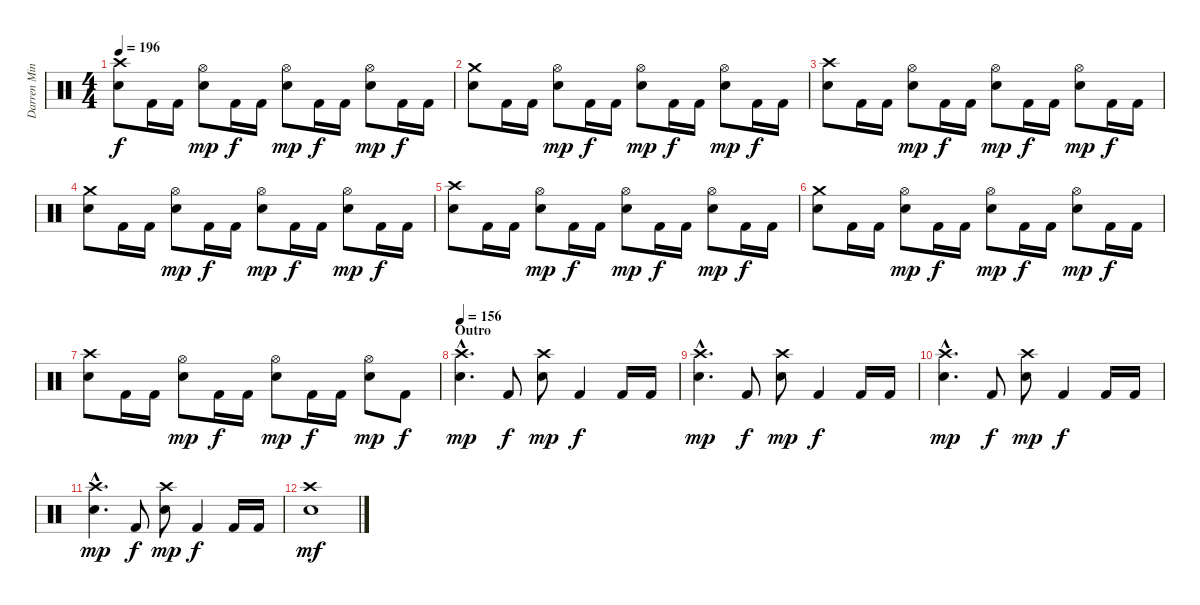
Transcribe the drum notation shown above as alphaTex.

\track ("Darren Minter" "Darren Min") {instrument percussion}
\staff {score}
\articulation defaults
\ts (4 4)
\tempo 196
\clef neutral
\ks c
("Crash high (hit)" "Snare (hit) 2").8{dy f} "Kick (hit) 2".16 "Kick (hit) 2".16 ("Hi-Hat (open)" "Snare (hit) 2").8{dy mp} "Kick (hit) 2".16{dy f} "Kick (hit) 2".16 ("Hi-Hat (open)" "Snare (hit) 2").8{dy mp} "Kick (hit) 2".16{dy f} "Kick (hit) 2".16 ("Hi-Hat (open)" "Snare (hit) 2").8{dy mp} "Kick (hit) 2".16{dy f} "Kick (hit) 2".16 |
("Crash medium (hit)" "Snare (hit) 2").8 "Kick (hit) 2".16 "Kick (hit) 2".16 ("Hi-Hat (open)" "Snare (hit) 2").8{dy mp} "Kick (hit) 2".16{dy f} "Kick (hit) 2".16 ("Hi-Hat (open)" "Snare (hit) 2").8{dy mp} "Kick (hit) 2".16{dy f} "Kick (hit) 2".16 ("Hi-Hat (open)" "Snare (hit) 2").8{dy mp} "Kick (hit) 2".16{dy f} "Kick (hit) 2".16 |
("Crash high (hit)" "Snare (hit) 2").8 "Kick (hit) 2".16 "Kick (hit) 2".16 ("Hi-Hat (open)" "Snare (hit) 2").8{dy mp} "Kick (hit) 2".16{dy f} "Kick (hit) 2".16 ("Hi-Hat (open)" "Snare (hit) 2").8{dy mp} "Kick (hit) 2".16{dy f} "Kick (hit) 2".16 ("Hi-Hat (open)" "Snare (hit) 2").8{dy mp} "Kick (hit) 2".16{dy f} "Kick (hit) 2".16 |
("Crash medium (hit)" "Snare (hit) 2").8 "Kick (hit) 2".16 "Kick (hit) 2".16 ("Hi-Hat (open)" "Snare (hit) 2").8{dy mp} "Kick (hit) 2".16{dy f} "Kick (hit) 2".16 ("Hi-Hat (open)" "Snare (hit) 2").8{dy mp} "Kick (hit) 2".16{dy f} "Kick (hit) 2".16 ("Hi-Hat (open)" "Snare (hit) 2").8{dy mp} "Kick (hit) 2".16{dy f} "Kick (hit) 2".16 |
("Crash high (hit)" "Snare (hit) 2").8 "Kick (hit) 2".16 "Kick (hit) 2".16 ("Hi-Hat (open)" "Snare (hit) 2").8{dy mp} "Kick (hit) 2".16{dy f} "Kick (hit) 2".16 ("Hi-Hat (open)" "Snare (hit) 2").8{dy mp} "Kick (hit) 2".16{dy f} "Kick (hit) 2".16 ("Hi-Hat (open)" "Snare (hit) 2").8{dy mp} "Kick (hit) 2".16{dy f} "Kick (hit) 2".16 |
("Crash medium (hit)" "Snare (hit) 2").8 "Kick (hit) 2".16 "Kick (hit) 2".16 ("Hi-Hat (open)" "Snare (hit) 2").8{dy mp} "Kick (hit) 2".16{dy f} "Kick (hit) 2".16 ("Hi-Hat (open)" "Snare (hit) 2").8{dy mp} "Kick (hit) 2".16{dy f} "Kick (hit) 2".16 ("Hi-Hat (open)" "Snare (hit) 2").8{dy mp} "Kick (hit) 2".16{dy f} "Kick (hit) 2".16 |
("Crash high (hit)" "Snare (hit) 2").8 "Kick (hit) 2".16 "Kick (hit) 2".16 ("Hi-Hat (open)" "Snare (hit) 2").8{dy mp} "Kick (hit) 2".16{dy f} "Kick (hit) 2".16 ("Hi-Hat (open)" "Snare (hit) 2").8{dy mp} "Kick (hit) 2".16{dy f} "Kick (hit) 2".16 ("Hi-Hat (open)" "Snare (hit) 2").8{dy mp} "Kick (hit) 2".8{dy f} |
\section ("" "Outro")
\tempo 156
("Crash high (hit)"{hac} "Snare (hit) 2"{hac}).4{d dy mp} "Kick (hit) 2".8{dy f} ("Crash high (hit)" "Snare (hit) 2").8{dy mp} "Kick (hit) 2".4{dy f} "Kick (hit) 2".16 "Kick (hit) 2".16 |
("Crash high (hit)"{hac} "Snare (hit) 2"{hac}).4{d dy mp} "Kick (hit) 2".8{dy f} ("Crash high (hit)" "Snare (hit) 2").8{dy mp} "Kick (hit) 2".4{dy f} "Kick (hit) 2".16 "Kick (hit) 2".16 |
("Crash high (hit)"{hac} "Snare (hit) 2"{hac}).4{d dy mp} "Kick (hit) 2".8{dy f} ("Crash high (hit)" "Snare (hit) 2").8{dy mp} "Kick (hit) 2".4{dy f} "Kick (hit) 2".16 "Kick (hit) 2".16 |
("Crash high (hit)"{hac} "Snare (hit) 2"{hac}).4{d dy mp} "Kick (hit) 2".8{dy f} ("Crash high (hit)" "Snare (hit) 2").8{dy mp} "Kick (hit) 2".4{dy f} "Kick (hit) 2".16 "Kick (hit) 2".16 |
("Crash high (hit)" "Snare (hit) 2").1{dy mf}
